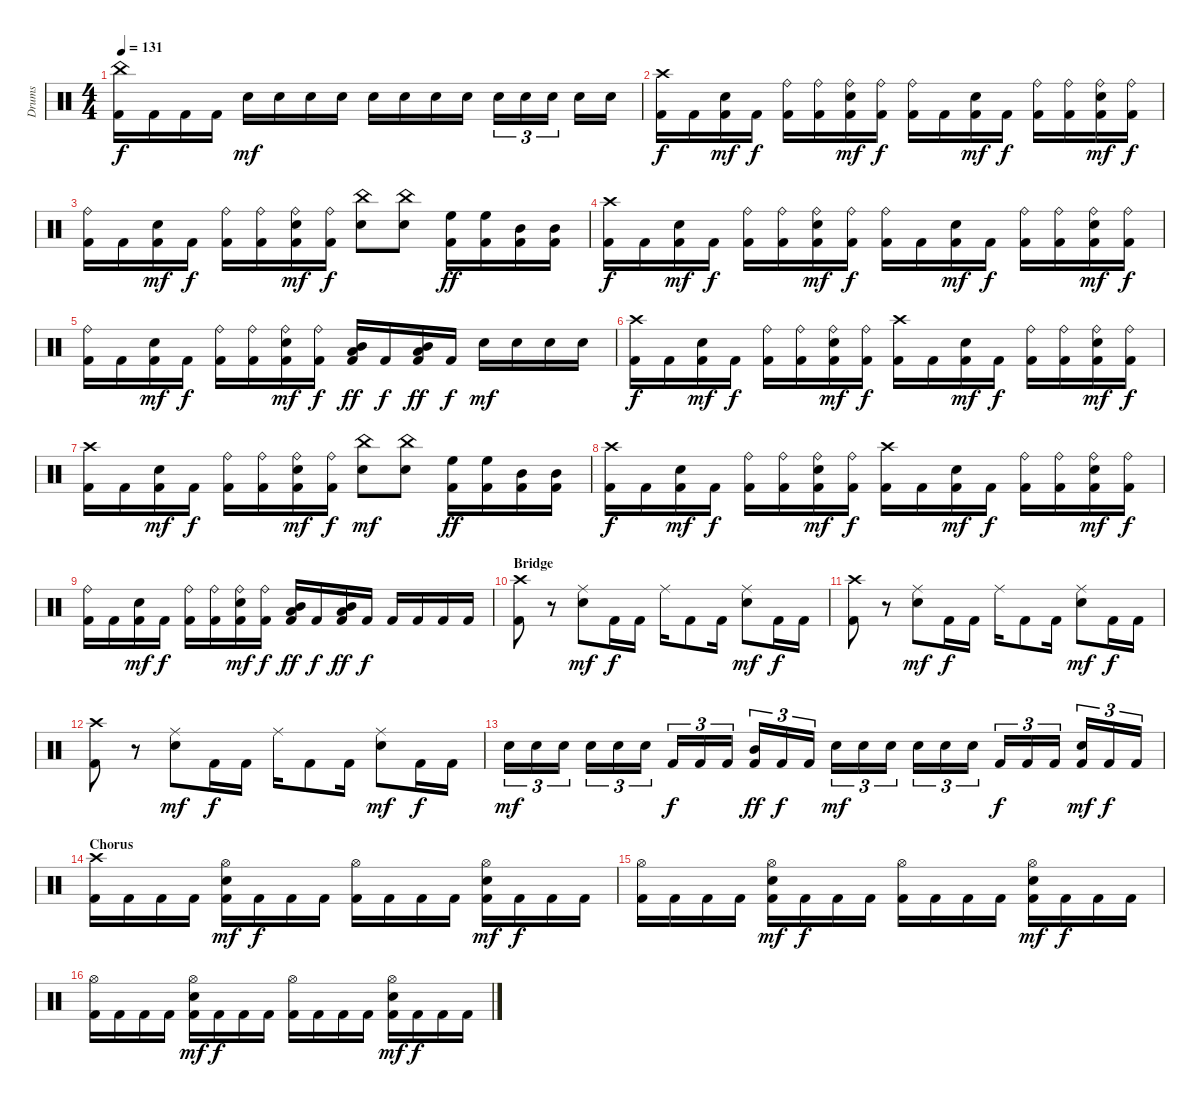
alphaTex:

\track ("Drums" "Drums") {instrument percussion}
\staff {score}
\articulation defaults
\ts (4 4)
\tempo 131
\clef neutral
\ks c
("China (hit)" "Kick (hit) 2").16{dy f} "Kick (hit) 2".16 "Kick (hit) 2".16 "Kick (hit) 2".16 "Snare (hit) 2".16{dy mf} "Snare (hit) 2".16 "Snare (hit) 2".16 "Snare (hit) 2".16 "Snare (hit) 2".16 "Snare (hit) 2".16 "Snare (hit) 2".16 "Snare (hit) 2".16 "Snare (hit) 2".16{tu (3 2)} "Snare (hit) 2".16{tu (3 2)} "Snare (hit) 2".16{tu (3 2)} "Snare (hit) 2".16 "Snare (hit) 2".16 |
\section ("" "")
("Crash high (hit)" "Kick (hit) 2").16{dy f} "Kick (hit) 2".16 ("Snare (hit) 2" "Kick (hit) 2").16{dy mf} "Kick (hit) 2".16{dy f} ("Ride (bell)" "Kick (hit) 2").16 ("Ride (bell)" "Kick (hit) 2").16 ("Ride (bell)" "Snare (hit) 2" "Kick (hit) 2").16{dy mf} ("Ride (bell)" "Kick (hit) 2").16{dy f} ("Ride (bell)" "Kick (hit) 2").16 "Kick (hit) 2".16 ("Snare (hit) 2" "Kick (hit) 2").16{dy mf} "Kick (hit) 2".16{dy f} ("Ride (bell)" "Kick (hit) 2").16 ("Ride (bell)" "Kick (hit) 2").16 ("Ride (bell)" "Snare (hit) 2" "Kick (hit) 2").16{dy mf} ("Ride (bell)" "Kick (hit) 2").16{dy f} |
("Ride (bell)" "Kick (hit) 2").16 "Kick (hit) 2".16 ("Snare (hit) 2" "Kick (hit) 2").16{dy mf} "Kick (hit) 2".16{dy f} ("Ride (bell)" "Kick (hit) 2").16 ("Ride (bell)" "Kick (hit) 2").16 ("Ride (bell)" "Snare (hit) 2" "Kick (hit) 2").16{dy mf} ("Ride (bell)" "Kick (hit) 2").16{dy f} ("China (hit)" "Snare (hit) 2").8 ("China (hit)" "Snare (hit) 2").8 ("High Floor Tom (hit)" "Kick (hit) 2").16{dy ff} ("High Floor Tom (hit)" "Kick (hit) 2").16 ("Mid Tom (hit)" "Kick (hit) 2").16 ("Mid Tom (hit)" "Kick (hit) 2").16 |
("Crash high (hit)" "Kick (hit) 2").16{dy f} "Kick (hit) 2".16 ("Snare (hit) 2" "Kick (hit) 2").16{dy mf} "Kick (hit) 2".16{dy f} ("Ride (bell)" "Kick (hit) 2").16 ("Ride (bell)" "Kick (hit) 2").16 ("Ride (bell)" "Snare (hit) 2" "Kick (hit) 2").16{dy mf} ("Ride (bell)" "Kick (hit) 2").16{dy f} ("Ride (bell)" "Kick (hit) 2").16 "Kick (hit) 2".16 ("Snare (hit) 2" "Kick (hit) 2").16{dy mf} "Kick (hit) 2".16{dy f} ("Ride (bell)" "Kick (hit) 2").16 ("Ride (bell)" "Kick (hit) 2").16 ("Ride (bell)" "Snare (hit) 2" "Kick (hit) 2").16{dy mf} ("Ride (bell)" "Kick (hit) 2").16{dy f} |
("Ride (bell)" "Kick (hit) 2").16 "Kick (hit) 2".16 ("Snare (hit) 2" "Kick (hit) 2").16{dy mf} "Kick (hit) 2".16{dy f} ("Ride (bell)" "Kick (hit) 2").16 ("Ride (bell)" "Kick (hit) 2").16 ("Ride (bell)" "Snare (hit) 2" "Kick (hit) 2").16{dy mf} ("Ride (bell)" "Kick (hit) 2").16{dy f} ("Mid Tom (hit)" "Low Tom (hit)" "Kick (hit) 2").16{dy ff} "Kick (hit) 2".16{dy f} ("Mid Tom (hit)" "Low Tom (hit)" "Kick (hit) 2").16{dy ff} "Kick (hit) 2".16{dy f} "Snare (hit) 2".16{dy mf} "Snare (hit) 2".16 "Snare (hit) 2".16 "Snare (hit) 2".16 |
("Crash high (hit)" "Kick (hit) 2").16{dy f} "Kick (hit) 2".16 ("Snare (hit) 2" "Kick (hit) 2").16{dy mf} "Kick (hit) 2".16{dy f} ("Ride (bell)" "Kick (hit) 2").16 ("Ride (bell)" "Kick (hit) 2").16 ("Ride (bell)" "Snare (hit) 2" "Kick (hit) 2").16{dy mf} ("Ride (bell)" "Kick (hit) 2").16{dy f} ("Crash high (hit)" "Kick (hit) 2").16 "Kick (hit) 2".16 ("Snare (hit) 2" "Kick (hit) 2").16{dy mf} "Kick (hit) 2".16{dy f} ("Ride (bell)" "Kick (hit) 2").16 ("Ride (bell)" "Kick (hit) 2").16 ("Ride (bell)" "Snare (hit) 2" "Kick (hit) 2").16{dy mf} ("Ride (bell)" "Kick (hit) 2").16{dy f} |
("Crash high (hit)" "Kick (hit) 2").16 "Kick (hit) 2".16 ("Snare (hit) 2" "Kick (hit) 2").16{dy mf} "Kick (hit) 2".16{dy f} ("Ride (bell)" "Kick (hit) 2").16 ("Ride (bell)" "Kick (hit) 2").16 ("Ride (bell)" "Snare (hit) 2" "Kick (hit) 2").16{dy mf} ("Ride (bell)" "Kick (hit) 2").16{dy f} ("China (hit)" "Snare (hit) 2").8{dy mf} ("China (hit)" "Snare (hit) 2").8 ("High Floor Tom (hit)" "Kick (hit) 2").16{dy ff} ("High Floor Tom (hit)" "Kick (hit) 2").16 ("Mid Tom (hit)" "Kick (hit) 2").16 ("Mid Tom (hit)" "Kick (hit) 2").16 |
("Crash high (hit)" "Kick (hit) 2").16{dy f} "Kick (hit) 2".16 ("Snare (hit) 2" "Kick (hit) 2").16{dy mf} "Kick (hit) 2".16{dy f} ("Ride (bell)" "Kick (hit) 2").16 ("Ride (bell)" "Kick (hit) 2").16 ("Ride (bell)" "Snare (hit) 2" "Kick (hit) 2").16{dy mf} ("Ride (bell)" "Kick (hit) 2").16{dy f} ("Crash high (hit)" "Kick (hit) 2").16 "Kick (hit) 2".16 ("Snare (hit) 2" "Kick (hit) 2").16{dy mf} "Kick (hit) 2".16{dy f} ("Ride (bell)" "Kick (hit) 2").16 ("Ride (bell)" "Kick (hit) 2").16 ("Ride (bell)" "Snare (hit) 2" "Kick (hit) 2").16{dy mf} ("Ride (bell)" "Kick (hit) 2").16{dy f} |
("Ride (bell)" "Kick (hit) 2").16 "Kick (hit) 2".16 ("Snare (hit) 2" "Kick (hit) 2").16{dy mf} "Kick (hit) 2".16{dy f} ("Ride (bell)" "Kick (hit) 2").16 ("Ride (bell)" "Kick (hit) 2").16 ("Ride (bell)" "Snare (hit) 2" "Kick (hit) 2").16{dy mf} ("Ride (bell)" "Kick (hit) 2").16{dy f} ("Mid Tom (hit)" "Low Tom (hit)" "Kick (hit) 2").16{dy ff} "Kick (hit) 2".16{dy f} ("Mid Tom (hit)" "Low Tom (hit)" "Kick (hit) 2").16{dy ff} "Kick (hit) 2".16{dy f} "Kick (hit) 2".16 "Kick (hit) 2".16 "Kick (hit) 2".16 "Kick (hit) 2".16 |
\section ("" "Bridge")
("Crash high (hit)" "Kick (hit) 2").8 r.8 ("Ride (middle)" "Snare (hit) 2").8{dy mf} "Kick (hit) 2".16{dy f} "Kick (hit) 2".16 "Ride (middle)".16 "Kick (hit) 2".8 "Kick (hit) 2".16 ("Ride (middle)" "Snare (hit) 2").8{dy mf} "Kick (hit) 2".16{dy f} "Kick (hit) 2".16 |
("Crash high (hit)" "Kick (hit) 2").8 r.8 ("Ride (middle)" "Snare (hit) 2").8{dy mf} "Kick (hit) 2".16{dy f} "Kick (hit) 2".16 "Ride (middle)".16 "Kick (hit) 2".8 "Kick (hit) 2".16 ("Ride (middle)" "Snare (hit) 2").8{dy mf} "Kick (hit) 2".16{dy f} "Kick (hit) 2".16 |
("Crash high (hit)" "Kick (hit) 2").8 r.8 ("Ride (middle)" "Snare (hit) 2").8{dy mf} "Kick (hit) 2".16{dy f} "Kick (hit) 2".16 "Ride (middle)".16 "Kick (hit) 2".8 "Kick (hit) 2".16 ("Ride (middle)" "Snare (hit) 2").8{dy mf} "Kick (hit) 2".16{dy f} "Kick (hit) 2".16 |
"Snare (hit) 2".16{tu (3 2) dy mf} "Snare (hit) 2".16{tu (3 2)} "Snare (hit) 2".16{tu (3 2)} "Snare (hit) 2".16{tu (3 2)} "Snare (hit) 2".16{tu (3 2)} "Snare (hit) 2".16{tu (3 2)} "Kick (hit) 2".16{tu (3 2) dy f} "Kick (hit) 2".16{tu (3 2)} "Kick (hit) 2".16{tu (3 2)} ("Mid Tom (hit)" "Kick (hit) 2").16{tu (3 2) dy ff} "Kick (hit) 2".16{tu (3 2) dy f} "Kick (hit) 2".16{tu (3 2)} "Snare (hit) 2".16{tu (3 2) dy mf} "Snare (hit) 2".16{tu (3 2)} "Snare (hit) 2".16{tu (3 2)} "Snare (hit) 2".16{tu (3 2)} "Snare (hit) 2".16{tu (3 2)} "Snare (hit) 2".16{tu (3 2)} "Kick (hit) 2".16{tu (3 2) dy f} "Kick (hit) 2".16{tu (3 2)} "Kick (hit) 2".16{tu (3 2)} ("Snare (hit) 2" "Kick (hit) 2").16{tu (3 2) dy mf} "Kick (hit) 2".16{tu (3 2) dy f} "Kick (hit) 2".16{tu (3 2)} |
\section ("" "Chorus")
("Crash high (hit)" "Kick (hit) 2").16 "Kick (hit) 2".16 "Kick (hit) 2".16 "Kick (hit) 2".16 ("Hi-Hat (open)" "Snare (hit) 2" "Kick (hit) 2").16{dy mf} "Kick (hit) 2".16{dy f} "Kick (hit) 2".16 "Kick (hit) 2".16 ("Hi-Hat (open)" "Kick (hit) 2").16 "Kick (hit) 2".16 "Kick (hit) 2".16 "Kick (hit) 2".16 ("Hi-Hat (open)" "Snare (hit) 2" "Kick (hit) 2").16{dy mf} "Kick (hit) 2".16{dy f} "Kick (hit) 2".16 "Kick (hit) 2".16 |
("Hi-Hat (open)" "Kick (hit) 2").16 "Kick (hit) 2".16 "Kick (hit) 2".16 "Kick (hit) 2".16 ("Hi-Hat (open)" "Snare (hit) 2" "Kick (hit) 2").16{dy mf} "Kick (hit) 2".16{dy f} "Kick (hit) 2".16 "Kick (hit) 2".16 ("Hi-Hat (open)" "Kick (hit) 2").16 "Kick (hit) 2".16 "Kick (hit) 2".16 "Kick (hit) 2".16 ("Hi-Hat (open)" "Snare (hit) 2" "Kick (hit) 2").16{dy mf} "Kick (hit) 2".16{dy f} "Kick (hit) 2".16 "Kick (hit) 2".16 |
("Hi-Hat (open)" "Kick (hit) 2").16 "Kick (hit) 2".16 "Kick (hit) 2".16 "Kick (hit) 2".16 ("Hi-Hat (open)" "Snare (hit) 2" "Kick (hit) 2").16{dy mf} "Kick (hit) 2".16{dy f} "Kick (hit) 2".16 "Kick (hit) 2".16 ("Hi-Hat (open)" "Kick (hit) 2").16 "Kick (hit) 2".16 "Kick (hit) 2".16 "Kick (hit) 2".16 ("Hi-Hat (open)" "Snare (hit) 2" "Kick (hit) 2").16{dy mf} "Kick (hit) 2".16{dy f} "Kick (hit) 2".16 "Kick (hit) 2".16
